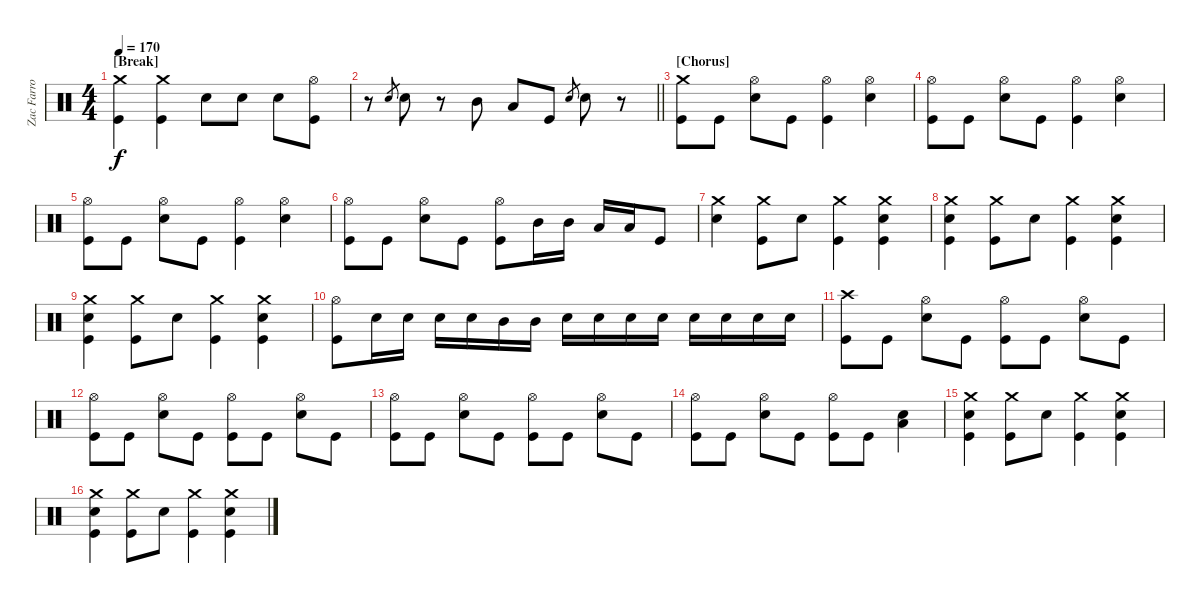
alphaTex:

\track ("Zac Farro" "Zac Farro") {instrument percussion}
\staff {score}
\articulation defaults
\ts (4 4)
\section ("" "[Break]")
\tempo 170
\clef neutral
\ks c
("Crash medium (hit)" "Kick (hit)").4{dy f} ("Crash medium (hit)" "Kick (hit)").4 "Electric Snare (hit)".8 "Electric Snare (hit)".8 "Electric Snare (hit)".8 ("Hi-Hat (open)" "Kick (hit)").8 |
\barLineRight lightlight
r.8 "Electric Snare (hit)".8{gr} "Electric Snare (hit)".8 r.8 "Mid Tom (hit)".8 "Low Tom (hit)".8 "Kick (hit)".8 "Electric Snare (hit)".8{gr} "Electric Snare (hit)".8 r.8 |
\section ("" "[Chorus]")
("Crash medium (hit)" "Kick (hit)").8 "Kick (hit)".8 ("Hi-Hat (open)" "Electric Snare (hit)").8 "Kick (hit)".8 ("Hi-Hat (open)" "Kick (hit)").4 ("Hi-Hat (open)" "Electric Snare (hit)").4 |
("Hi-Hat (open)" "Kick (hit)").8 "Kick (hit)".8 ("Hi-Hat (open)" "Electric Snare (hit)").8 "Kick (hit)".8 ("Hi-Hat (open)" "Kick (hit)").4 ("Hi-Hat (open)" "Electric Snare (hit)").4 |
("Hi-Hat (open)" "Kick (hit)").8 "Kick (hit)".8 ("Hi-Hat (open)" "Electric Snare (hit)").8 "Kick (hit)".8 ("Hi-Hat (open)" "Kick (hit)").4 ("Hi-Hat (open)" "Electric Snare (hit)").4 |
("Hi-Hat (open)" "Kick (hit)").8 "Kick (hit)".8 ("Hi-Hat (open)" "Electric Snare (hit)").8 "Kick (hit)".8 ("Hi-Hat (open)" "Kick (hit)").8 "Mid Tom (hit)".16 "Mid Tom (hit)".16 "Low Tom (hit)".16 "Low Tom (hit)".16 "Kick (hit)".8 |
("Crash medium (hit)" "Electric Snare (hit)").4 ("Crash medium (hit)" "Kick (hit)").8 "Electric Snare (hit)".8 ("Crash medium (hit)" "Kick (hit)").4 ("Crash medium (hit)" "Electric Snare (hit)" "Kick (hit)").4 |
("Crash medium (hit)" "Electric Snare (hit)" "Kick (hit)").4 ("Crash medium (hit)" "Kick (hit)").8 "Electric Snare (hit)".8 ("Crash medium (hit)" "Kick (hit)").4 ("Crash medium (hit)" "Electric Snare (hit)" "Kick (hit)").4 |
("Crash medium (hit)" "Electric Snare (hit)" "Kick (hit)").4 ("Crash medium (hit)" "Kick (hit)").8 "Electric Snare (hit)".8 ("Crash medium (hit)" "Kick (hit)").4 ("Crash medium (hit)" "Electric Snare (hit)" "Kick (hit)").4 |
("Hi-Hat (open)" "Kick (hit)").8 "Electric Snare (hit)".16 "Electric Snare (hit)".16 "Electric Snare (hit)".16 "Electric Snare (hit)".16 "Mid Tom (hit)".16 "Mid Tom (hit)".16 "Electric Snare (hit)".16 "Electric Snare (hit)".16 "Electric Snare (hit)".16 "Electric Snare (hit)".16 "Electric Snare (hit)".16 "Electric Snare (hit)".16 "Electric Snare (hit)".16 "Electric Snare (hit)".16 |
("Crash high (hit)" "Kick (hit)").8 "Kick (hit)".8 ("Hi-Hat (open)" "Electric Snare (hit)").8 "Kick (hit)".8 ("Hi-Hat (open)" "Kick (hit)").8 "Kick (hit)".8 ("Hi-Hat (open)" "Electric Snare (hit)").8 "Kick (hit)".8 |
("Hi-Hat (open)" "Kick (hit)").8 "Kick (hit)".8 ("Hi-Hat (open)" "Electric Snare (hit)").8 "Kick (hit)".8 ("Hi-Hat (open)" "Kick (hit)").8 "Kick (hit)".8 ("Hi-Hat (open)" "Electric Snare (hit)").8 "Kick (hit)".8 |
("Hi-Hat (open)" "Kick (hit)").8 "Kick (hit)".8 ("Hi-Hat (open)" "Electric Snare (hit)").8 "Kick (hit)".8 ("Hi-Hat (open)" "Kick (hit)").8 "Kick (hit)".8 ("Hi-Hat (open)" "Electric Snare (hit)").8 "Kick (hit)".8 |
("Hi-Hat (open)" "Kick (hit)").8 "Kick (hit)".8 ("Hi-Hat (open)" "Electric Snare (hit)").8 "Kick (hit)".8 ("Hi-Hat (open)" "Kick (hit)").8 "Kick (hit)".8 ("Low Tom (hit)" "Electric Snare (hit)").4 |
("Crash medium (hit)" "Electric Snare (hit)" "Kick (hit)").4 ("Crash medium (hit)" "Kick (hit)").8 "Electric Snare (hit)".8 ("Crash medium (hit)" "Kick (hit)").4 ("Crash medium (hit)" "Electric Snare (hit)" "Kick (hit)").4 |
("Crash medium (hit)" "Electric Snare (hit)" "Kick (hit)").4 ("Crash medium (hit)" "Kick (hit)").8 "Electric Snare (hit)".8 ("Crash medium (hit)" "Kick (hit)").4 ("Crash medium (hit)" "Electric Snare (hit)" "Kick (hit)").4
